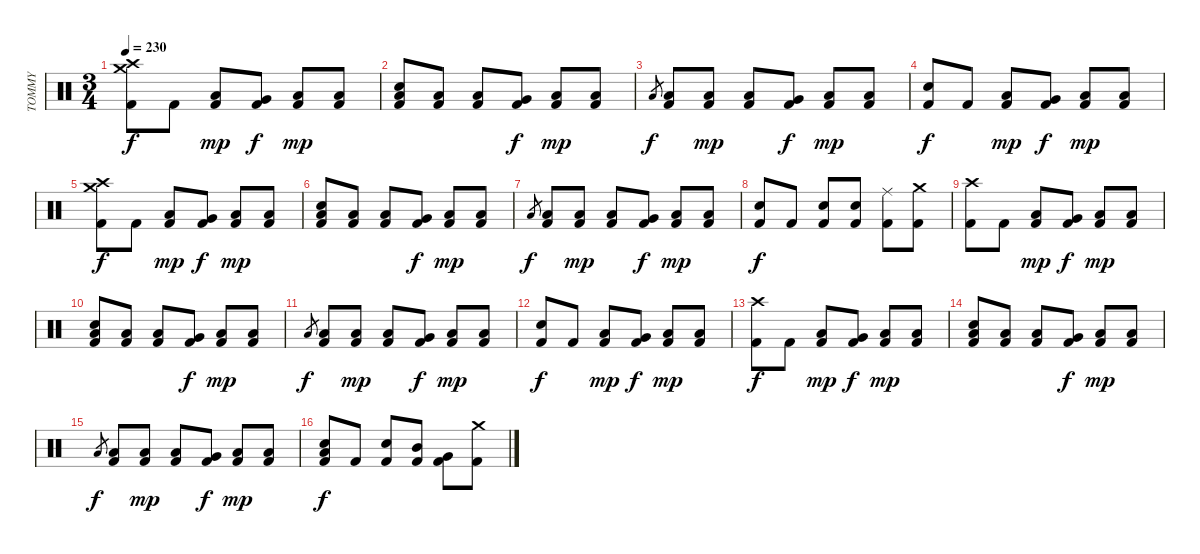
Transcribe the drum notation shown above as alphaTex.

\track ("TOMMY" "TOMMY") {instrument percussion}
\staff {score}
\articulation defaults
\ts (3 4)
\tempo 230
\clef neutral
\ks c
("Kick (hit) 2" "Crash high (hit)" "Crash medium (hit)").8{dy f} "Kick (hit) 2".8 ("Kick (hit) 2" "Low Floor Tom (hit)").8{dy mp} ("Kick (hit) 2" "Very Low Tom (hit)").8{dy f} ("Kick (hit) 2" "Low Floor Tom (hit)").8{dy mp} ("Kick (hit) 2" "Low Floor Tom (hit)").8 |
("Snare (hit) 2" "Kick (hit) 2" "Low Floor Tom (hit)").8 ("Kick (hit) 2" "Low Floor Tom (hit)").8 ("Kick (hit) 2" "Low Floor Tom (hit)").8 ("Kick (hit) 2" "Very Low Tom (hit)").8{dy f} ("Kick (hit) 2" "Low Floor Tom (hit)").8{dy mp} ("Kick (hit) 2" "Low Floor Tom (hit)").8 |
"Low Floor Tom (hit)".8{gr dy f} ("Kick (hit) 2" "Low Floor Tom (hit)").8 ("Kick (hit) 2" "Low Floor Tom (hit)").8{dy mp} ("Kick (hit) 2" "Low Floor Tom (hit)").8 ("Kick (hit) 2" "Very Low Tom (hit)").8{dy f} ("Kick (hit) 2" "Low Floor Tom (hit)").8{dy mp} ("Kick (hit) 2" "Low Floor Tom (hit)").8 |
("Snare (hit) 2" "Kick (hit) 2").8{dy f} "Kick (hit) 2".8 ("Kick (hit) 2" "Low Floor Tom (hit)").8{dy mp} ("Kick (hit) 2" "Very Low Tom (hit)").8{dy f} ("Kick (hit) 2" "Low Floor Tom (hit)").8{dy mp} ("Kick (hit) 2" "Low Floor Tom (hit)").8 |
("Kick (hit) 2" "Crash high (hit)" "Crash medium (hit)").8{dy f} "Kick (hit) 2".8 ("Kick (hit) 2" "Low Floor Tom (hit)").8{dy mp} ("Kick (hit) 2" "Very Low Tom (hit)").8{dy f} ("Kick (hit) 2" "Low Floor Tom (hit)").8{dy mp} ("Kick (hit) 2" "Low Floor Tom (hit)").8 |
("Snare (hit) 2" "Kick (hit) 2" "Low Floor Tom (hit)").8 ("Kick (hit) 2" "Low Floor Tom (hit)").8 ("Kick (hit) 2" "Low Floor Tom (hit)").8 ("Kick (hit) 2" "Very Low Tom (hit)").8{dy f} ("Kick (hit) 2" "Low Floor Tom (hit)").8{dy mp} ("Kick (hit) 2" "Low Floor Tom (hit)").8 |
"Low Floor Tom (hit)".8{gr dy f} ("Kick (hit) 2" "Low Floor Tom (hit)").8 ("Kick (hit) 2" "Low Floor Tom (hit)").8{dy mp} ("Kick (hit) 2" "Low Floor Tom (hit)").8 ("Kick (hit) 2" "Very Low Tom (hit)").8{dy f} ("Kick (hit) 2" "Low Floor Tom (hit)").8{dy mp} ("Kick (hit) 2" "Low Floor Tom (hit)").8 |
("Snare (hit) 2" "Kick (hit) 2").8{dy f} "Kick (hit) 2".8 ("Snare (hit) 2" "Kick (hit) 2").8 ("Snare (hit) 2" "Kick (hit) 2").8 ("Kick (hit) 2" "Ride (middle)").8 ("Kick (hit) 2" "Crash medium (hit)").8 |
("Kick (hit) 2" "Crash high (hit)").8 "Kick (hit) 2".8 ("Kick (hit) 2" "Low Floor Tom (hit)").8{dy mp} ("Kick (hit) 2" "Very Low Tom (hit)").8{dy f} ("Kick (hit) 2" "Low Floor Tom (hit)").8{dy mp} ("Kick (hit) 2" "Low Floor Tom (hit)").8 |
("Snare (hit) 2" "Kick (hit) 2" "Low Floor Tom (hit)").8 ("Kick (hit) 2" "Low Floor Tom (hit)").8 ("Kick (hit) 2" "Low Floor Tom (hit)").8 ("Kick (hit) 2" "Very Low Tom (hit)").8{dy f} ("Kick (hit) 2" "Low Floor Tom (hit)").8{dy mp} ("Kick (hit) 2" "Low Floor Tom (hit)").8 |
"Low Floor Tom (hit)".8{gr dy f} ("Kick (hit) 2" "Low Floor Tom (hit)").8 ("Kick (hit) 2" "Low Floor Tom (hit)").8{dy mp} ("Kick (hit) 2" "Low Floor Tom (hit)").8 ("Kick (hit) 2" "Very Low Tom (hit)").8{dy f} ("Kick (hit) 2" "Low Floor Tom (hit)").8{dy mp} ("Kick (hit) 2" "Low Floor Tom (hit)").8 |
("Snare (hit) 2" "Kick (hit) 2").8{dy f} "Kick (hit) 2".8 ("Kick (hit) 2" "Low Floor Tom (hit)").8{dy mp} ("Kick (hit) 2" "Very Low Tom (hit)").8{dy f} ("Kick (hit) 2" "Low Floor Tom (hit)").8{dy mp} ("Kick (hit) 2" "Low Floor Tom (hit)").8 |
("Kick (hit) 2" "Crash high (hit)").8{dy f} "Kick (hit) 2".8 ("Kick (hit) 2" "Low Floor Tom (hit)").8{dy mp} ("Kick (hit) 2" "Very Low Tom (hit)").8{dy f} ("Kick (hit) 2" "Low Floor Tom (hit)").8{dy mp} ("Kick (hit) 2" "Low Floor Tom (hit)").8 |
("Snare (hit) 2" "Kick (hit) 2" "Low Floor Tom (hit)").8 ("Kick (hit) 2" "Low Floor Tom (hit)").8 ("Kick (hit) 2" "Low Floor Tom (hit)").8 ("Kick (hit) 2" "Very Low Tom (hit)").8{dy f} ("Kick (hit) 2" "Low Floor Tom (hit)").8{dy mp} ("Kick (hit) 2" "Low Floor Tom (hit)").8 |
"Low Floor Tom (hit)".8{gr dy f} ("Kick (hit) 2" "Low Floor Tom (hit)").8 ("Kick (hit) 2" "Low Floor Tom (hit)").8{dy mp} ("Kick (hit) 2" "Low Floor Tom (hit)").8 ("Kick (hit) 2" "Very Low Tom (hit)").8{dy f} ("Kick (hit) 2" "Low Floor Tom (hit)").8{dy mp} ("Kick (hit) 2" "Low Floor Tom (hit)").8 |
("Snare (hit) 2" "Kick (hit) 2" "Low Floor Tom (hit)").8{dy f} "Kick (hit) 2".8 ("Snare (hit) 2" "Kick (hit) 2").8 ("Kick (hit) 2" "Mid Tom (hit)").8 ("Kick (hit) 2" "Very Low Tom (hit)").8 ("Kick (hit) 2" "Crash medium (hit)").8
